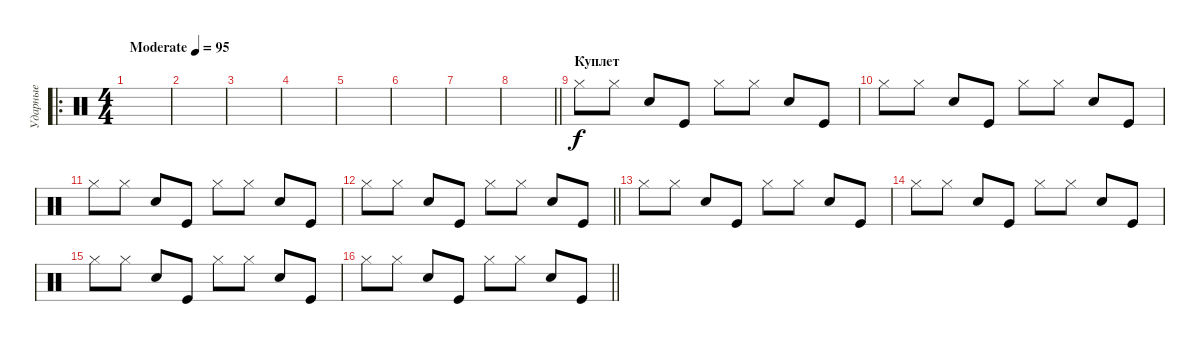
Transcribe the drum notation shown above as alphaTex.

\track ("Ударные" "Ударные") {instrument percussion}
\staff {score}
\articulation defaults
\ro
\ts (4 4)
\tempo (95 "Moderate")
\clef neutral
\ks c
|
|
|
|
|
|
|
\barLineRight lightlight
|
\section ("" "Куплет")
"Hi-Hat (closed)".8 "Hi-Hat (closed)".8 "Snare (hit) 2".8 "Kick (hit)".8 "Hi-Hat (closed)".8 "Hi-Hat (closed)".8 "Snare (hit) 2".8 "Kick (hit)".8 |
"Hi-Hat (closed)".8 "Hi-Hat (closed)".8 "Snare (hit) 2".8 "Kick (hit)".8 "Hi-Hat (closed)".8 "Hi-Hat (closed)".8 "Snare (hit) 2".8 "Kick (hit)".8 |
"Hi-Hat (closed)".8 "Hi-Hat (closed)".8 "Snare (hit) 2".8 "Kick (hit)".8 "Hi-Hat (closed)".8 "Hi-Hat (closed)".8 "Snare (hit) 2".8 "Kick (hit)".8 |
\barLineRight lightlight "Hi-Hat (closed)".8 "Hi-Hat (closed)".8 "Snare (hit) 2".8 "Kick (hit)".8 "Hi-Hat (closed)".8 "Hi-Hat (closed)".8 "Snare (hit) 2".8 "Kick (hit)".8
|
"Hi-Hat (closed)".8 "Hi-Hat (closed)".8 "Snare (hit) 2".8 "Kick (hit)".8 "Hi-Hat (closed)".8 "Hi-Hat (closed)".8 "Snare (hit) 2".8 "Kick (hit)".8 |
"Hi-Hat (closed)".8 "Hi-Hat (closed)".8 "Snare (hit) 2".8 "Kick (hit)".8 "Hi-Hat (closed)".8 "Hi-Hat (closed)".8 "Snare (hit) 2".8 "Kick (hit)".8 |
"Hi-Hat (closed)".8 "Hi-Hat (closed)".8 "Snare (hit) 2".8 "Kick (hit)".8 "Hi-Hat (closed)".8 "Hi-Hat (closed)".8 "Snare (hit) 2".8 "Kick (hit)".8 |
\barLineRight lightlight "Hi-Hat (closed)".8 "Hi-Hat (closed)".8 "Snare (hit) 2".8 "Kick (hit)".8 "Hi-Hat (closed)".8 "Hi-Hat (closed)".8 "Snare (hit) 2".8 "Kick (hit)".8
